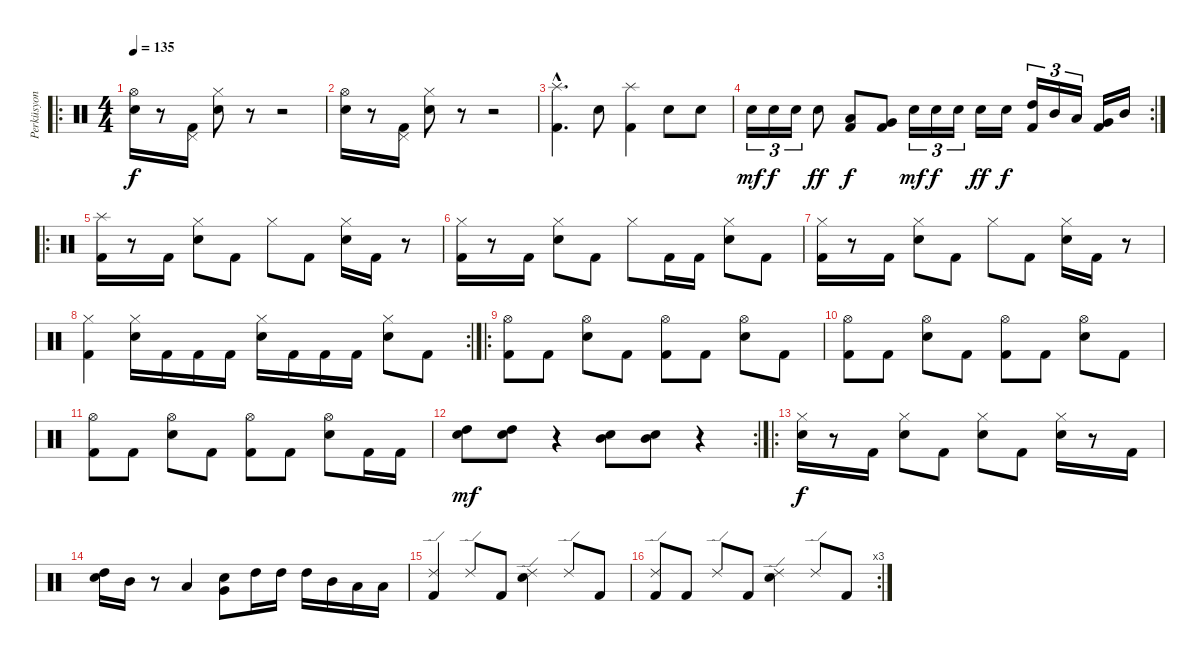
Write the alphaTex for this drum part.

\track ("Perküsyon" "Perküsyon") {instrument percussion}
\staff {score}
\articulation defaults
\ro
\ts (4 4)
\tempo 135
\clef neutral
\ks c
("Snare (hit) 2" "Hi-Hat (open)").16{dy f} r.8 ("Kick (hit) 2" "Pedal Hi-Hat (hit)").16 ("Snare (hit) 2" "Hi-Hat (closed)").8 r.8 r.2 |
("Snare (hit) 2" "Hi-Hat (open)").16 r.8 ("Kick (hit) 2" "Pedal Hi-Hat (hit)").16 ("Snare (hit) 2" "Hi-Hat (closed)").8 r.8 r.2 |
("Kick (hit) 2"{hac} "Splash (hit)"{hac}).4{d} "Snare (hit) 2".8 ("Kick (hit) 2" "Splash (hit)").4 "Snare (hit) 2".8 "Snare (hit) 2".8 |
\rc 2 "Snare (hit) 2".16{tu (3 2) dy mf} "Snare (hit) 2".16{tu (3 2) dy f} "Snare (hit) 2".16{tu (3 2)} "Snare (hit) 2".8{dy ff}
("Kick (hit) 2" "Low Tom (hit)").8{dy f} ("Kick (hit) 2" "Very Low Tom (hit)").8 "Snare (hit) 2".16{tu (3 2) dy mf} "Snare (hit) 2".16{tu (3 2) dy f} "Snare (hit) 2".16{tu (3 2)} "Snare (hit) 2".16{dy ff} "Snare (hit) 2".16{dy f} ("Kick (hit) 2" "High Tom (hit)").16{tu (3 2)} "Mid Tom (hit)".16{tu (3 2)} "Low Tom (hit)".16{tu (3 2)} ("Kick (hit) 2" "Very Low Tom (hit)").16 "Mid Tom (hit)".16 |
\ro
("Kick (hit) 2" "Splash (hit)").16 r.8 "Kick (hit) 2".16 ("Snare (hit) 2" "Hi-Hat (closed)").8 "Kick (hit) 2".8 "Hi-Hat (closed)".8 "Kick (hit) 2".8 ("Snare (hit) 2" "Hi-Hat (closed)").16 "Kick (hit) 2".16 r.8 |
("Kick (hit) 2" "Hi-Hat (closed)").16 r.8 "Kick (hit) 2".16 ("Snare (hit) 2" "Hi-Hat (closed)").8 "Kick (hit) 2".8 "Hi-Hat (closed)".8 "Kick (hit) 2".16 "Kick (hit) 2".16 ("Snare (hit) 2" "Hi-Hat (closed)").8 "Kick (hit) 2".8 |
("Kick (hit) 2" "Hi-Hat (closed)").16 r.8 "Kick (hit) 2".16 ("Snare (hit) 2" "Hi-Hat (closed)").8 "Kick (hit) 2".8 "Hi-Hat (closed)".8 "Kick (hit) 2".8 ("Snare (hit) 2" "Hi-Hat (closed)").16 "Kick (hit) 2".16 r.8 |
\rc 2
("Kick (hit) 2" "Hi-Hat (closed)").4 ("Snare (hit) 2" "Hi-Hat (closed)").16 "Kick (hit) 2".16 "Kick (hit) 2".16 "Kick (hit) 2".16 ("Snare (hit) 2" "Hi-Hat (closed)").16 "Kick (hit) 2".16 "Kick (hit) 2".16 "Kick (hit) 2".16 ("Snare (hit) 2" "Hi-Hat (closed)").8 "Kick (hit) 2".8 |
\ro
("Kick (hit) 2" "Hi-Hat (open)").8 "Kick (hit) 2".8 ("Snare (hit) 2" "Hi-Hat (open)").8 "Kick (hit) 2".8 ("Kick (hit) 2" "Hi-Hat (open)").8 "Kick (hit) 2".8 ("Snare (hit) 2" "Hi-Hat (open)").8 "Kick (hit) 2".8 |
("Kick (hit) 2" "Hi-Hat (open)").8 "Kick (hit) 2".8 ("Snare (hit) 2" "Hi-Hat (open)").8 "Kick (hit) 2".8 ("Kick (hit) 2" "Hi-Hat (open)").8 "Kick (hit) 2".8 ("Snare (hit) 2" "Hi-Hat (open)").8 "Kick (hit) 2".8 |
("Kick (hit) 2" "Hi-Hat (open)").8 "Kick (hit) 2".8 ("Snare (hit) 2" "Hi-Hat (open)").8 "Kick (hit) 2".8 ("Kick (hit) 2" "Hi-Hat (open)").8 "Kick (hit) 2".8 ("Snare (hit) 2" "Hi-Hat (open)").8 "Kick (hit) 2".16 "Kick (hit) 2".16 |
\rc 2
("Snare (hit) 2" "High Tom (hit)").8{dy mf} ("Snare (hit) 2" "High Tom (hit)").8 r.4 ("Snare (hit) 2" "Mid Tom (hit)").8 ("Snare (hit) 2" "Mid Tom (hit)").8 r.4 |
\ro
("Snare (hit) 2" "Hi-Hat (closed)").16{dy f} r.8 "Kick (hit) 2".16 ("Snare (hit) 2" "Hi-Hat (closed)").8 "Kick (hit) 2".8 ("Snare (hit) 2" "Hi-Hat (closed)").8 "Kick (hit) 2".8 ("Snare (hit) 2" "Hi-Hat (closed)").16 r.8 "Kick (hit) 2".16 |
("Snare (hit) 2" "High Tom (hit)").16 "Mid Tom (hit)".16 r.8 "Low Tom (hit)".4 ("Snare (hit) 2" "Very Low Tom (hit)").8 "High Tom (hit)".16 "High Tom (hit)".16 "High Tom (hit)".16 "Mid Tom (hit)".16 "Low Tom (hit)".16 "Low Floor Tom (hit)".16 |
("Kick (hit) 2" "Ride (edge) 2").4 "Ride (edge) 2".8 "Kick (hit) 2".8 ("Snare (hit) 2" "Ride (edge) 2").4 "Ride (edge) 2".8 "Kick (hit) 2".8 |
\rc 3
("Kick (hit) 2" "Ride (edge) 2").8 "Kick (hit) 2".8 "Ride (edge) 2".8 "Kick (hit) 2".8 ("Snare (hit) 2" "Ride (edge) 2").4 "Ride (edge) 2".8 "Kick (hit) 2".8
